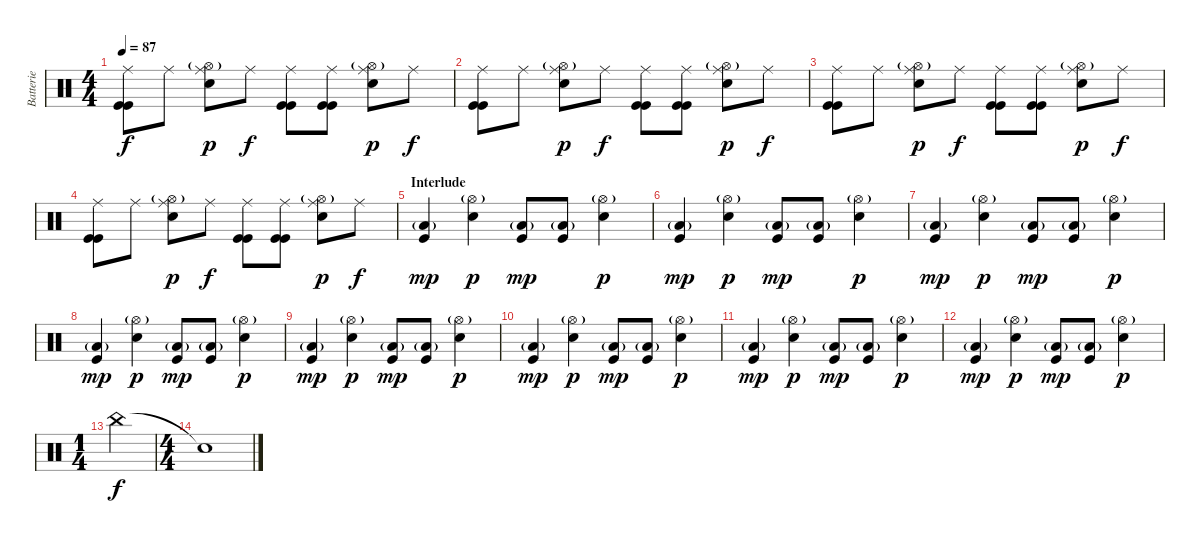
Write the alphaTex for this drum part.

\track ("Batterie" "Batterie") {instrument percussion}
\staff {score}
\articulation defaults
\ts (4 4)
\tempo 87
\clef neutral
\ks c
("Ride (middle)" "Kick (hit)" "Kick (hit)").8{dy f} "Ride (middle)".8 ("Hi-Hat (open)"{g} "Ride (middle)" "Electric Snare (hit)").8{dy p} "Ride (middle)".8{dy f} ("Ride (middle)" "Kick (hit)" "Kick (hit)").8 ("Ride (middle)" "Kick (hit)" "Kick (hit)").8 ("Hi-Hat (open)"{g} "Ride (middle)" "Electric Snare (hit)").8{dy p} "Ride (middle)".8{dy f} |
("Ride (middle)" "Kick (hit)" "Kick (hit)").8 "Ride (middle)".8 ("Hi-Hat (open)"{g} "Ride (middle)" "Electric Snare (hit)").8{dy p} "Ride (middle)".8{dy f} ("Ride (middle)" "Kick (hit)" "Kick (hit)").8 ("Ride (middle)" "Kick (hit)" "Kick (hit)").8 ("Hi-Hat (open)"{g} "Ride (middle)" "Electric Snare (hit)").8{dy p} "Ride (middle)".8{dy f} |
("Ride (middle)" "Kick (hit)" "Kick (hit)").8 "Ride (middle)".8 ("Hi-Hat (open)"{g} "Ride (middle)" "Electric Snare (hit)").8{dy p} "Ride (middle)".8{dy f} ("Ride (middle)" "Kick (hit)" "Kick (hit)").8 ("Ride (middle)" "Kick (hit)" "Kick (hit)").8 ("Hi-Hat (open)"{g} "Ride (middle)" "Electric Snare (hit)").8{dy p} "Ride (middle)".8{dy f} |
("Ride (middle)" "Kick (hit)" "Kick (hit)").8 "Ride (middle)".8 ("Hi-Hat (open)"{g} "Ride (middle)" "Electric Snare (hit)").8{dy p} "Ride (middle)".8{dy f} ("Ride (middle)" "Kick (hit)" "Kick (hit)").8 ("Ride (middle)" "Kick (hit)" "Kick (hit)").8 ("Hi-Hat (open)"{g} "Ride (middle)" "Electric Snare (hit)").8{dy p} "Ride (middle)".8{dy f} |
\section ("" "Interlude")
("Kick (hit)" "Low Floor Tom (hit)"{g}).4{dy mp} ("Hi-Hat (open)"{g} "Electric Snare (hit)").4{dy p} ("Kick (hit)" "Low Floor Tom (hit)"{g}).8{dy mp} ("Kick (hit)" "Low Floor Tom (hit)"{g}).8 ("Hi-Hat (open)"{g} "Electric Snare (hit)").4{dy p} |
("Kick (hit)" "Low Floor Tom (hit)"{g}).4{dy mp} ("Hi-Hat (open)"{g} "Electric Snare (hit)").4{dy p} ("Kick (hit)" "Low Floor Tom (hit)"{g}).8{dy mp} ("Kick (hit)" "Low Floor Tom (hit)"{g}).8 ("Hi-Hat (open)"{g} "Electric Snare (hit)").4{dy p} |
("Kick (hit)" "Low Floor Tom (hit)"{g}).4{dy mp} ("Hi-Hat (open)"{g} "Electric Snare (hit)").4{dy p} ("Kick (hit)" "Low Floor Tom (hit)"{g}).8{dy mp} ("Kick (hit)" "Low Floor Tom (hit)"{g}).8 ("Hi-Hat (open)"{g} "Electric Snare (hit)").4{dy p} |
("Kick (hit)" "Low Floor Tom (hit)"{g}).4{dy mp} ("Hi-Hat (open)"{g} "Electric Snare (hit)").4{dy p} ("Kick (hit)" "Low Floor Tom (hit)"{g}).8{dy mp} ("Kick (hit)" "Low Floor Tom (hit)"{g}).8 ("Hi-Hat (open)"{g} "Electric Snare (hit)").4{dy p} |
("Kick (hit)" "Low Floor Tom (hit)"{g}).4{dy mp} ("Hi-Hat (open)"{g} "Electric Snare (hit)").4{dy p} ("Kick (hit)" "Low Floor Tom (hit)"{g}).8{dy mp} ("Kick (hit)" "Low Floor Tom (hit)"{g}).8 ("Hi-Hat (open)"{g} "Electric Snare (hit)").4{dy p} |
("Kick (hit)" "Low Floor Tom (hit)"{g}).4{dy mp} ("Hi-Hat (open)"{g} "Electric Snare (hit)").4{dy p} ("Kick (hit)" "Low Floor Tom (hit)"{g}).8{dy mp} ("Kick (hit)" "Low Floor Tom (hit)"{g}).8 ("Hi-Hat (open)"{g} "Electric Snare (hit)").4{dy p} |
("Kick (hit)" "Low Floor Tom (hit)"{g}).4{dy mp} ("Hi-Hat (open)"{g} "Electric Snare (hit)").4{dy p} ("Kick (hit)" "Low Floor Tom (hit)"{g}).8{dy mp} ("Kick (hit)" "Low Floor Tom (hit)"{g}).8 ("Hi-Hat (open)"{g} "Electric Snare (hit)").4{dy p} |
("Kick (hit)" "Low Floor Tom (hit)"{g}).4{dy mp} ("Hi-Hat (open)"{g} "Electric Snare (hit)").4{dy p} ("Kick (hit)" "Low Floor Tom (hit)"{g}).8{dy mp} ("Kick (hit)" "Low Floor Tom (hit)"{g}).8 ("Hi-Hat (open)"{g} "Electric Snare (hit)").4{dy p} |
\ts (1 4)
"China (hit)".4{dy f} |
\ts (4 4)
"Snare (hit)"{t}.1
